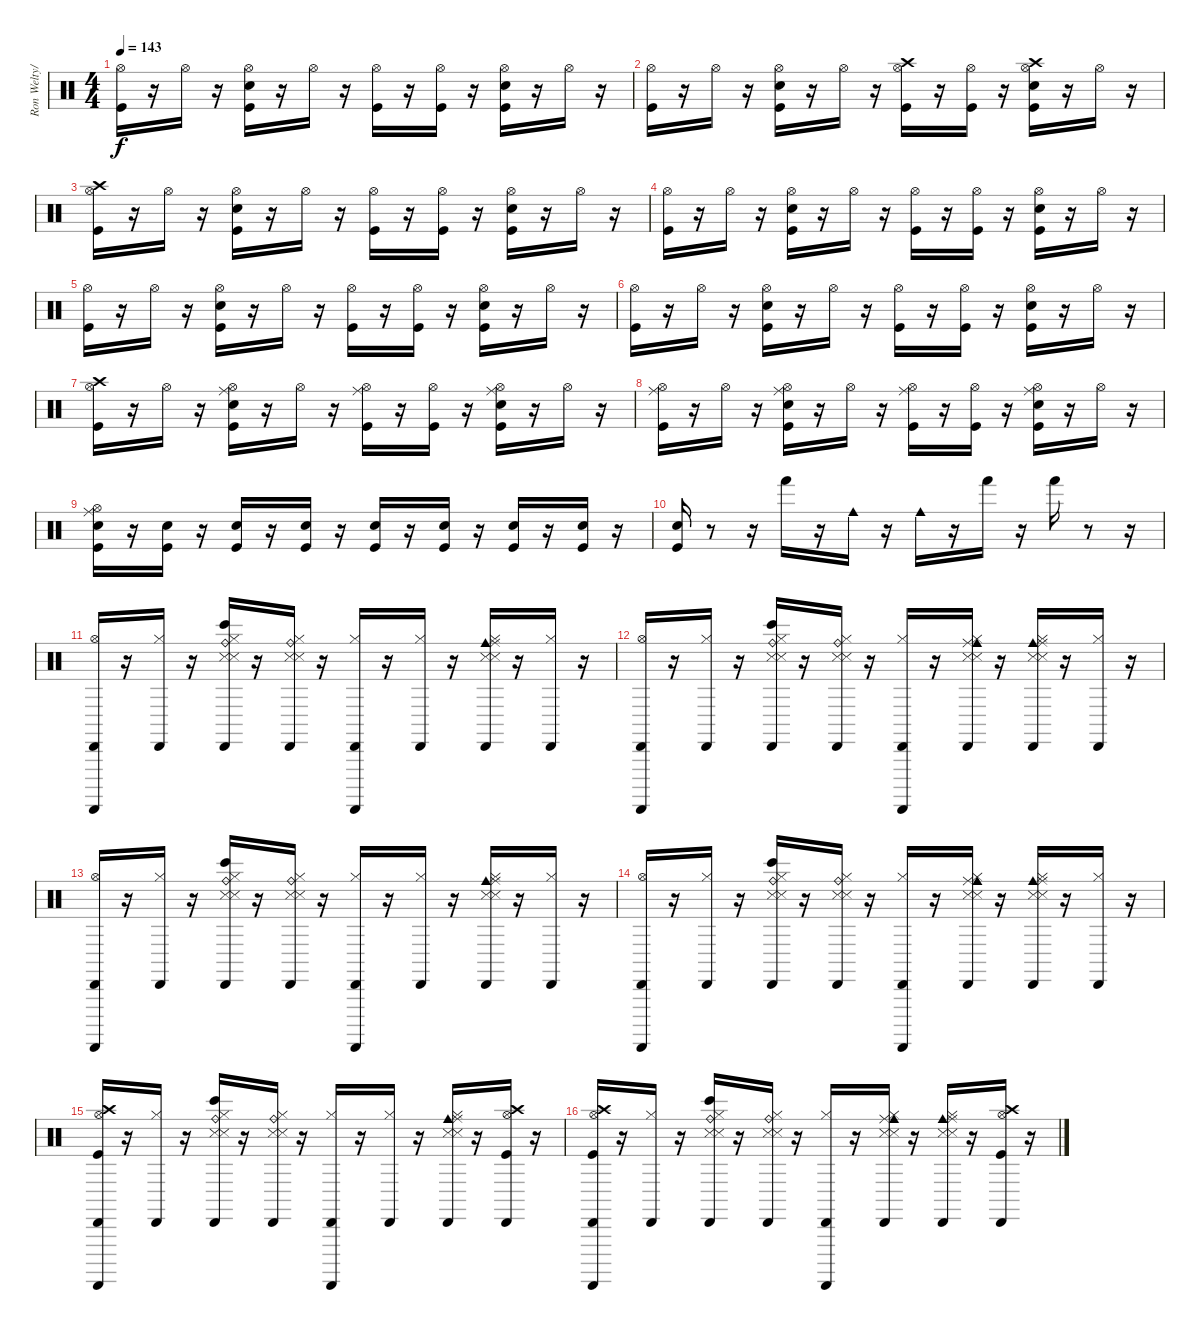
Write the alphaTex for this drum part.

\track ("Ron Welty/Atom Willard" "Ron Welty/") {instrument percussion}
\staff {score}
\articulation defaults
\ts (4 4)
\tempo 143
\clef neutral
\ks c
("Hi-Hat (open)" "Kick (hit)").16{dy f} r.16 "Hi-Hat (open)".16 r.16 ("Snare (hit) 2" "Kick (hit)" "Hi-Hat (open)").16 r.16 "Hi-Hat (open)".16 r.16 ("Kick (hit)" "Hi-Hat (open)").16 r.16 ("Kick (hit)" "Hi-Hat (open)").16 r.16 ("Kick (hit)" "Snare (hit) 2" "Hi-Hat (open)").16 r.16 "Hi-Hat (open)".16 r.16 |
("Hi-Hat (open)" "Kick (hit)").16 r.16 "Hi-Hat (open)".16 r.16 ("Snare (hit) 2" "Kick (hit)" "Hi-Hat (open)").16 r.16 "Hi-Hat (open)".16 r.16 ("Kick (hit)" "Hi-Hat (open)" "Crash high (hit)").16 r.16 ("Kick (hit)" "Hi-Hat (open)").16 r.16 ("Kick (hit)" "Snare (hit) 2" "Hi-Hat (open)" "Crash high (hit)").16 r.16 "Hi-Hat (open)".16 r.16 |
("Hi-Hat (open)" "Kick (hit)" "Crash high (hit)").16 r.16 "Hi-Hat (open)".16 r.16 ("Snare (hit) 2" "Kick (hit)" "Hi-Hat (open)").16 r.16 "Hi-Hat (open)".16 r.16 ("Kick (hit)" "Hi-Hat (open)").16 r.16 ("Kick (hit)" "Hi-Hat (open)").16 r.16 ("Kick (hit)" "Snare (hit) 2" "Hi-Hat (open)").16 r.16 "Hi-Hat (open)".16 r.16 |
("Hi-Hat (open)" "Kick (hit)").16 r.16 "Hi-Hat (open)".16 r.16 ("Snare (hit) 2" "Kick (hit)" "Hi-Hat (open)").16 r.16 "Hi-Hat (open)".16 r.16 ("Kick (hit)" "Hi-Hat (open)").16 r.16 ("Kick (hit)" "Hi-Hat (open)").16 r.16 ("Kick (hit)" "Snare (hit) 2" "Hi-Hat (open)").16 r.16 "Hi-Hat (open)".16 r.16 |
("Hi-Hat (open)" "Kick (hit)").16 r.16 "Hi-Hat (open)".16 r.16 ("Snare (hit) 2" "Kick (hit)" "Hi-Hat (open)").16 r.16 "Hi-Hat (open)".16 r.16 ("Kick (hit)" "Hi-Hat (open)").16 r.16 ("Kick (hit)" "Hi-Hat (open)").16 r.16 ("Kick (hit)" "Snare (hit) 2" "Hi-Hat (open)").16 r.16 "Hi-Hat (open)".16 r.16 |
("Hi-Hat (open)" "Kick (hit)").16 r.16 "Hi-Hat (open)".16 r.16 ("Snare (hit) 2" "Kick (hit)" "Hi-Hat (open)").16 r.16 "Hi-Hat (open)".16 r.16 ("Kick (hit)" "Hi-Hat (open)").16 r.16 ("Kick (hit)" "Hi-Hat (open)").16 r.16 ("Kick (hit)" "Snare (hit) 2" "Hi-Hat (open)").16 r.16 "Hi-Hat (open)".16 r.16 |
("Hi-Hat (open)" "Kick (hit)" "Crash high (hit)").16 r.16 "Hi-Hat (open)".16 r.16 ("Snare (hit) 2" "Kick (hit)" "Hi-Hat (open)" "Ride (middle)").16 r.16 "Hi-Hat (open)".16 r.16 ("Kick (hit)" "Hi-Hat (open)" "Ride (middle)").16 r.16 ("Kick (hit)" "Hi-Hat (open)").16 r.16 ("Kick (hit)" "Snare (hit) 2" "Hi-Hat (open)" "Ride (middle)").16 r.16 "Hi-Hat (open)".16 r.16 |
("Hi-Hat (open)" "Kick (hit)" "Ride (middle)").16 r.16 "Hi-Hat (open)".16 r.16 ("Snare (hit) 2" "Kick (hit)" "Hi-Hat (open)" "Ride (middle)").16 r.16 "Hi-Hat (open)".16 r.16 ("Kick (hit)" "Hi-Hat (open)" "Ride (middle)").16 r.16 ("Kick (hit)" "Hi-Hat (open)").16 r.16 ("Kick (hit)" "Snare (hit) 2" "Hi-Hat (open)" "Ride (middle)").16 r.16 "Hi-Hat (open)".16 r.16 |
("Hi-Hat (open)" "Kick (hit)" "Snare (hit) 2" "Ride (middle)").16 r.16 ("Kick (hit)" "Snare (hit) 2").16 r.16 ("Kick (hit)" "Snare (hit) 2").16 r.16 ("Kick (hit)" "Snare (hit) 2").16 r.16 ("Kick (hit)" "Snare (hit) 2").16 r.16 ("Kick (hit)" "Snare (hit) 2").16 r.16 ("Kick (hit)" "Snare (hit) 2").16 r.16 ("Kick (hit)" "Snare (hit) 2").16 r.16 |
("Kick (hit)" "Snare (hit) 2").16 r.8 r.16 "Hand (hit)".16 r.16 "Cowbell medium (hit)".16 r.16 "Cowbell medium (hit)".16 r.16 "Hand (hit)".16 r.16 "Hand (hit)".16 r.8 r.16 |
("Guiro (scrap-return)" "Hi-Hat (open)" "Cabasa (hit)").16 r.16 ("Hi-Hat (closed)" "Cabasa (hit)").16 r.16 ("Hi-Hat (closed)" "Cabasa (hit)" "Bongo High (hit)" "Ride (bell)" "Metronome (hit)" "Snare (side stick) 3").16 r.16 ("Hi-Hat (closed)" "Cabasa (hit)" "Ride (bell)" "Metronome (hit)" "Snare (side stick) 3").16 r.16 ("Guiro (scrap-return)" "Hi-Hat (closed)" "Cabasa (hit)").16 r.16 ("Hi-Hat (closed)" "Cabasa (hit)").16 r.16 ("Hi-Hat (closed)" "Cabasa (hit)" "Cowbell medium (hit)" "Ride (middle)" "Metronome (hit)" "Snare (side stick) 3").16 r.16 ("Hi-Hat (closed)" "Cabasa (hit)").16 r.16 |
("Cabasa (hit)" "Hi-Hat (open)" "Guiro (scrap-return)").16 r.16 ("Hi-Hat (closed)" "Cabasa (hit)").16 r.16 ("Hi-Hat (closed)" "Cabasa (hit)" "Bongo High (hit)" "Ride (bell)" "Metronome (hit)" "Snare (side stick) 3").16 r.16 ("Hi-Hat (closed)" "Cabasa (hit)" "Ride (bell)" "Metronome (hit)" "Snare (side stick) 3").16 r.16 ("Guiro (scrap-return)" "Hi-Hat (closed)" "Cabasa (hit)").16 r.16 ("Hi-Hat (closed)" "Cabasa (hit)" "Ride (middle)" "Cowbell medium (hit)" "Snare (side stick) 3" "Metronome (hit)").16 r.16 ("Hi-Hat (closed)" "Cabasa (hit)" "Cowbell medium (hit)" "Ride (middle)" "Metronome (hit)" "Snare (side stick) 3").16 r.16 ("Hi-Hat (closed)" "Cabasa (hit)").16 r.16 |
("Cabasa (hit)" "Hi-Hat (open)" "Guiro (scrap-return)").16 r.16 ("Hi-Hat (closed)" "Cabasa (hit)").16 r.16 ("Hi-Hat (closed)" "Cabasa (hit)" "Bongo High (hit)" "Ride (bell)" "Metronome (hit)" "Snare (side stick) 3").16 r.16 ("Hi-Hat (closed)" "Cabasa (hit)" "Ride (bell)" "Metronome (hit)" "Snare (side stick) 3").16 r.16 ("Guiro (scrap-return)" "Hi-Hat (closed)" "Cabasa (hit)").16 r.16 ("Hi-Hat (closed)" "Cabasa (hit)").16 r.16 ("Hi-Hat (closed)" "Cabasa (hit)" "Cowbell medium (hit)" "Ride (middle)" "Metronome (hit)" "Snare (side stick) 3").16 r.16 ("Hi-Hat (closed)" "Cabasa (hit)").16 r.16 |
("Cabasa (hit)" "Hi-Hat (open)" "Guiro (scrap-return)").16 r.16 ("Hi-Hat (closed)" "Cabasa (hit)").16 r.16 ("Hi-Hat (closed)" "Cabasa (hit)" "Bongo High (hit)" "Ride (bell)" "Metronome (hit)" "Snare (side stick) 3").16 r.16 ("Hi-Hat (closed)" "Cabasa (hit)" "Ride (bell)" "Metronome (hit)" "Snare (side stick) 3").16 r.16 ("Guiro (scrap-return)" "Hi-Hat (closed)" "Cabasa (hit)").16 r.16 ("Hi-Hat (closed)" "Cabasa (hit)" "Ride (middle)" "Cowbell medium (hit)" "Snare (side stick) 3" "Metronome (hit)").16 r.16 ("Hi-Hat (closed)" "Cabasa (hit)" "Cowbell medium (hit)" "Ride (middle)" "Metronome (hit)" "Snare (side stick) 3").16 r.16 ("Hi-Hat (closed)" "Cabasa (hit)").16 r.16 |
("Cabasa (hit)" "Hi-Hat (open)" "Guiro (scrap-return)" "Crash high (hit)" "Kick (hit)").16 r.16 ("Hi-Hat (closed)" "Cabasa (hit)").16 r.16 ("Hi-Hat (closed)" "Cabasa (hit)" "Bongo High (hit)" "Ride (bell)" "Metronome (hit)" "Snare (side stick) 3").16 r.16 ("Hi-Hat (closed)" "Cabasa (hit)" "Ride (bell)" "Metronome (hit)" "Snare (side stick) 3").16 r.16 ("Guiro (scrap-return)" "Hi-Hat (closed)" "Cabasa (hit)").16 r.16 ("Hi-Hat (closed)" "Cabasa (hit)").16 r.16 ("Hi-Hat (closed)" "Cabasa (hit)" "Cowbell medium (hit)" "Ride (middle)" "Metronome (hit)" "Snare (side stick) 3").16 r.16 ("Cabasa (hit)" "Kick (hit)" "Hi-Hat (open)" "Crash high (hit)").16 r.16 |
("Cabasa (hit)" "Hi-Hat (open)" "Guiro (scrap-return)" "Kick (hit)" "Crash high (hit)").16 r.16 ("Hi-Hat (closed)" "Cabasa (hit)").16 r.16 ("Hi-Hat (closed)" "Cabasa (hit)" "Bongo High (hit)" "Ride (bell)" "Metronome (hit)" "Snare (side stick) 3").16 r.16 ("Hi-Hat (closed)" "Cabasa (hit)" "Ride (bell)" "Metronome (hit)" "Snare (side stick) 3").16 r.16 ("Guiro (scrap-return)" "Hi-Hat (closed)" "Cabasa (hit)").16 r.16 ("Hi-Hat (closed)" "Cabasa (hit)" "Ride (middle)" "Cowbell medium (hit)" "Snare (side stick) 3" "Metronome (hit)").16 r.16 ("Hi-Hat (closed)" "Cabasa (hit)" "Cowbell medium (hit)" "Ride (middle)" "Metronome (hit)" "Snare (side stick) 3").16 r.16 ("Cabasa (hit)" "Crash high (hit)" "Hi-Hat (open)" "Kick (hit)").16 r.16
